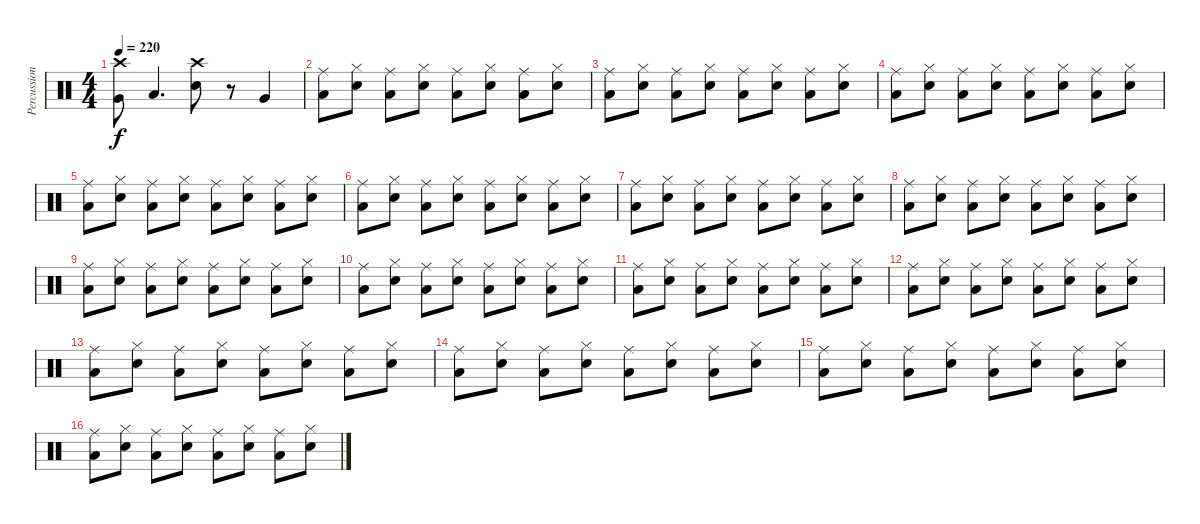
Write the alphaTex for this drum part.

\track ("Percussion" "Percussion") {instrument percussion}
\staff {score}
\articulation defaults
\ts (4 4)
\tempo 220
\clef neutral
\ks c
("Crash high (hit)" "Very Low Tom (hit)").8{dy f} "Low Floor Tom (hit)".4{d} ("Crash high (hit)" "Snare (hit) 2").8 r.8 "Very Low Tom (hit)".4 |
("Low Floor Tom (hit)" "Ride (middle)").8 ("Electric Snare (hit)" "Hi-Hat (closed)").8 ("Low Floor Tom (hit)" "Ride (middle)").8 ("Electric Snare (hit)" "Hi-Hat (closed)").8 ("Low Floor Tom (hit)" "Ride (middle)").8 ("Electric Snare (hit)" "Hi-Hat (closed)").8 ("Low Floor Tom (hit)" "Ride (middle)").8 ("Electric Snare (hit)" "Hi-Hat (closed)").8 |
("Low Floor Tom (hit)" "Ride (middle)").8 ("Electric Snare (hit)" "Hi-Hat (closed)").8 ("Low Floor Tom (hit)" "Ride (middle)").8 ("Electric Snare (hit)" "Hi-Hat (closed)").8 ("Low Floor Tom (hit)" "Ride (middle)").8 ("Electric Snare (hit)" "Hi-Hat (closed)").8 ("Low Floor Tom (hit)" "Ride (middle)").8 ("Electric Snare (hit)" "Hi-Hat (closed)").8 |
("Low Floor Tom (hit)" "Ride (middle)").8 ("Electric Snare (hit)" "Hi-Hat (closed)").8 ("Low Floor Tom (hit)" "Ride (middle)").8 ("Electric Snare (hit)" "Hi-Hat (closed)").8 ("Low Floor Tom (hit)" "Ride (middle)").8 ("Electric Snare (hit)" "Hi-Hat (closed)").8 ("Low Floor Tom (hit)" "Ride (middle)").8 ("Electric Snare (hit)" "Hi-Hat (closed)").8 |
("Low Floor Tom (hit)" "Ride (middle)").8 ("Electric Snare (hit)" "Hi-Hat (closed)").8 ("Low Floor Tom (hit)" "Ride (middle)").8 ("Electric Snare (hit)" "Hi-Hat (closed)").8 ("Low Floor Tom (hit)" "Ride (middle)").8 ("Electric Snare (hit)" "Hi-Hat (closed)").8 ("Low Floor Tom (hit)" "Ride (middle)").8 ("Electric Snare (hit)" "Hi-Hat (closed)").8 |
("Low Floor Tom (hit)" "Ride (middle)").8 ("Electric Snare (hit)" "Hi-Hat (closed)").8 ("Low Floor Tom (hit)" "Ride (middle)").8 ("Electric Snare (hit)" "Hi-Hat (closed)").8 ("Low Floor Tom (hit)" "Ride (middle)").8 ("Electric Snare (hit)" "Hi-Hat (closed)").8 ("Low Floor Tom (hit)" "Ride (middle)").8 ("Electric Snare (hit)" "Hi-Hat (closed)").8 |
("Low Floor Tom (hit)" "Ride (middle)").8 ("Electric Snare (hit)" "Hi-Hat (closed)").8 ("Low Floor Tom (hit)" "Ride (middle)").8 ("Electric Snare (hit)" "Hi-Hat (closed)").8 ("Low Floor Tom (hit)" "Ride (middle)").8 ("Electric Snare (hit)" "Hi-Hat (closed)").8 ("Low Floor Tom (hit)" "Ride (middle)").8 ("Electric Snare (hit)" "Hi-Hat (closed)").8 |
("Low Floor Tom (hit)" "Ride (middle)").8 ("Electric Snare (hit)" "Hi-Hat (closed)").8 ("Low Floor Tom (hit)" "Ride (middle)").8 ("Electric Snare (hit)" "Hi-Hat (closed)").8 ("Low Floor Tom (hit)" "Ride (middle)").8 ("Electric Snare (hit)" "Hi-Hat (closed)").8 ("Low Floor Tom (hit)" "Ride (middle)").8 ("Electric Snare (hit)" "Hi-Hat (closed)").8 |
("Low Floor Tom (hit)" "Ride (middle)").8 ("Electric Snare (hit)" "Hi-Hat (closed)").8 ("Low Floor Tom (hit)" "Ride (middle)").8 ("Electric Snare (hit)" "Hi-Hat (closed)").8 ("Low Floor Tom (hit)" "Ride (middle)").8 ("Electric Snare (hit)" "Hi-Hat (closed)").8 ("Low Floor Tom (hit)" "Ride (middle)").8 ("Electric Snare (hit)" "Hi-Hat (closed)").8 |
("Low Floor Tom (hit)" "Ride (middle)").8 ("Electric Snare (hit)" "Hi-Hat (closed)").8 ("Low Floor Tom (hit)" "Ride (middle)").8 ("Electric Snare (hit)" "Hi-Hat (closed)").8 ("Low Floor Tom (hit)" "Ride (middle)").8 ("Electric Snare (hit)" "Hi-Hat (closed)").8 ("Low Floor Tom (hit)" "Ride (middle)").8 ("Electric Snare (hit)" "Hi-Hat (closed)").8 |
("Low Floor Tom (hit)" "Ride (middle)").8 ("Electric Snare (hit)" "Hi-Hat (closed)").8 ("Low Floor Tom (hit)" "Ride (middle)").8 ("Electric Snare (hit)" "Hi-Hat (closed)").8 ("Low Floor Tom (hit)" "Ride (middle)").8 ("Electric Snare (hit)" "Hi-Hat (closed)").8 ("Low Floor Tom (hit)" "Ride (middle)").8 ("Electric Snare (hit)" "Hi-Hat (closed)").8 |
("Low Floor Tom (hit)" "Ride (middle)").8 ("Electric Snare (hit)" "Hi-Hat (closed)").8 ("Low Floor Tom (hit)" "Ride (middle)").8 ("Electric Snare (hit)" "Hi-Hat (closed)").8 ("Low Floor Tom (hit)" "Ride (middle)").8 ("Electric Snare (hit)" "Hi-Hat (closed)").8 ("Low Floor Tom (hit)" "Ride (middle)").8 ("Electric Snare (hit)" "Hi-Hat (closed)").8 |
("Low Floor Tom (hit)" "Ride (middle)").8 ("Electric Snare (hit)" "Hi-Hat (closed)").8 ("Low Floor Tom (hit)" "Ride (middle)").8 ("Electric Snare (hit)" "Hi-Hat (closed)").8 ("Low Floor Tom (hit)" "Ride (middle)").8 ("Electric Snare (hit)" "Hi-Hat (closed)").8 ("Low Floor Tom (hit)" "Ride (middle)").8 ("Electric Snare (hit)" "Hi-Hat (closed)").8 |
("Low Floor Tom (hit)" "Ride (middle)").8 ("Electric Snare (hit)" "Hi-Hat (closed)").8 ("Low Floor Tom (hit)" "Ride (middle)").8 ("Electric Snare (hit)" "Hi-Hat (closed)").8 ("Low Floor Tom (hit)" "Ride (middle)").8 ("Electric Snare (hit)" "Hi-Hat (closed)").8 ("Low Floor Tom (hit)" "Ride (middle)").8 ("Electric Snare (hit)" "Hi-Hat (closed)").8 |
("Low Floor Tom (hit)" "Ride (middle)").8 ("Electric Snare (hit)" "Hi-Hat (closed)").8 ("Low Floor Tom (hit)" "Ride (middle)").8 ("Electric Snare (hit)" "Hi-Hat (closed)").8 ("Low Floor Tom (hit)" "Ride (middle)").8 ("Electric Snare (hit)" "Hi-Hat (closed)").8 ("Low Floor Tom (hit)" "Ride (middle)").8 ("Electric Snare (hit)" "Hi-Hat (closed)").8 |
("Low Floor Tom (hit)" "Ride (middle)").8 ("Electric Snare (hit)" "Hi-Hat (closed)").8 ("Low Floor Tom (hit)" "Ride (middle)").8 ("Electric Snare (hit)" "Hi-Hat (closed)").8 ("Low Floor Tom (hit)" "Ride (middle)").8 ("Electric Snare (hit)" "Hi-Hat (closed)").8 ("Low Floor Tom (hit)" "Ride (middle)").8 ("Electric Snare (hit)" "Hi-Hat (closed)").8
